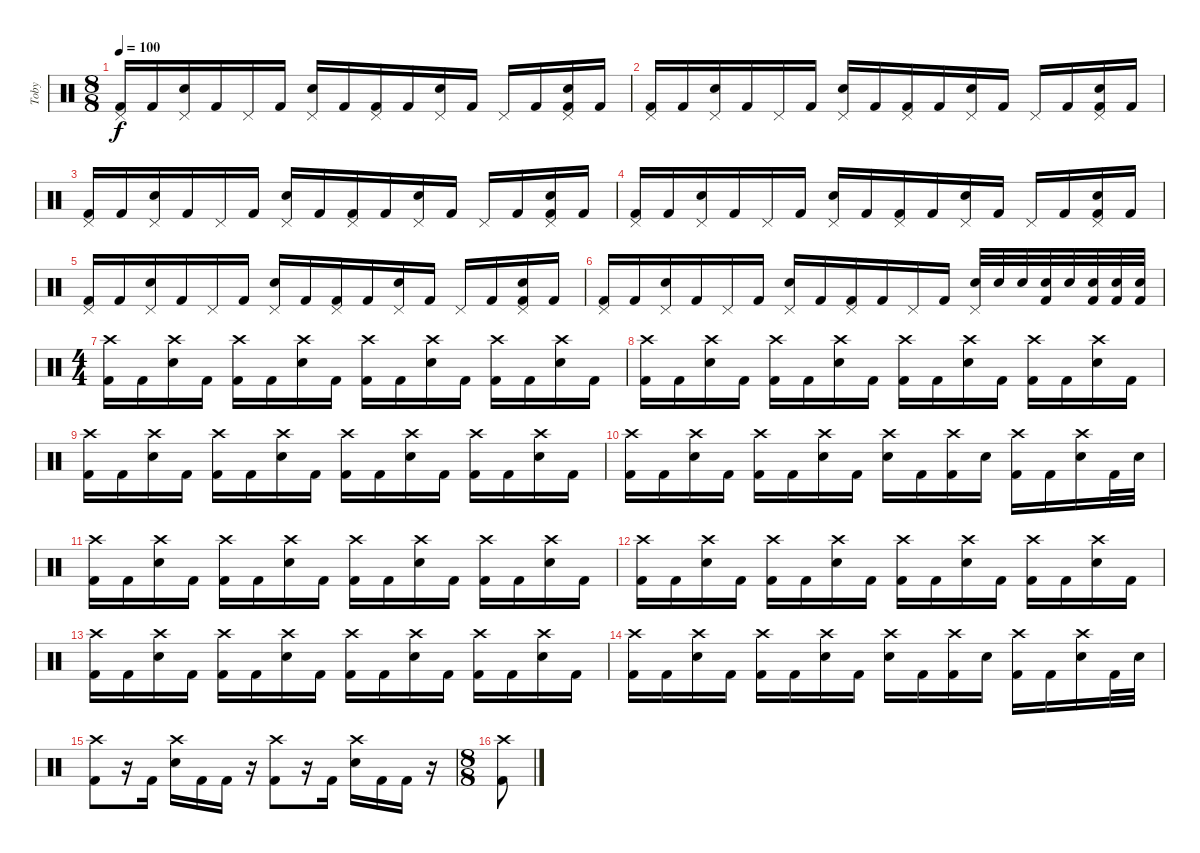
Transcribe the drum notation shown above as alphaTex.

\track ("Toby" "Toby") {instrument percussion}
\staff {score}
\articulation defaults
\ts (8 8)
\tempo 100
\clef neutral
\ks c
("Pedal Hi-Hat (hit)" "Kick (hit) 2").16{dy f} "Kick (hit) 2".16 ("Pedal Hi-Hat (hit)" "Electric Snare (hit)").16 "Kick (hit) 2".16 "Pedal Hi-Hat (hit)".16 "Kick (hit) 2".16 ("Pedal Hi-Hat (hit)" "Electric Snare (hit)").16 "Kick (hit) 2".16 ("Pedal Hi-Hat (hit)" "Kick (hit) 2").16 "Kick (hit) 2".16 ("Pedal Hi-Hat (hit)" "Electric Snare (hit)").16 "Kick (hit) 2".16 "Pedal Hi-Hat (hit)".16 "Kick (hit) 2".16 ("Pedal Hi-Hat (hit)" "Electric Snare (hit)" "Kick (hit) 2").16 "Kick (hit) 2".16 |
("Pedal Hi-Hat (hit)" "Kick (hit) 2").16 "Kick (hit) 2".16 ("Pedal Hi-Hat (hit)" "Electric Snare (hit)").16 "Kick (hit) 2".16 "Pedal Hi-Hat (hit)".16 "Kick (hit) 2".16 ("Pedal Hi-Hat (hit)" "Electric Snare (hit)").16 "Kick (hit) 2".16 ("Pedal Hi-Hat (hit)" "Kick (hit) 2").16 "Kick (hit) 2".16 ("Pedal Hi-Hat (hit)" "Electric Snare (hit)").16 "Kick (hit) 2".16 "Pedal Hi-Hat (hit)".16 "Kick (hit) 2".16 ("Pedal Hi-Hat (hit)" "Electric Snare (hit)" "Kick (hit) 2").16 "Kick (hit) 2".16 |
("Pedal Hi-Hat (hit)" "Kick (hit) 2").16 "Kick (hit) 2".16 ("Pedal Hi-Hat (hit)" "Electric Snare (hit)").16 "Kick (hit) 2".16 "Pedal Hi-Hat (hit)".16 "Kick (hit) 2".16 ("Pedal Hi-Hat (hit)" "Electric Snare (hit)").16 "Kick (hit) 2".16 ("Pedal Hi-Hat (hit)" "Kick (hit) 2").16 "Kick (hit) 2".16 ("Pedal Hi-Hat (hit)" "Electric Snare (hit)").16 "Kick (hit) 2".16 "Pedal Hi-Hat (hit)".16 "Kick (hit) 2".16 ("Pedal Hi-Hat (hit)" "Electric Snare (hit)" "Kick (hit) 2").16 "Kick (hit) 2".16 |
("Pedal Hi-Hat (hit)" "Kick (hit) 2").16 "Kick (hit) 2".16 ("Pedal Hi-Hat (hit)" "Electric Snare (hit)").16 "Kick (hit) 2".16 "Pedal Hi-Hat (hit)".16 "Kick (hit) 2".16 ("Pedal Hi-Hat (hit)" "Electric Snare (hit)").16 "Kick (hit) 2".16 ("Pedal Hi-Hat (hit)" "Kick (hit) 2").16 "Kick (hit) 2".16 ("Pedal Hi-Hat (hit)" "Electric Snare (hit)").16 "Kick (hit) 2".16 "Pedal Hi-Hat (hit)".16 "Kick (hit) 2".16 ("Pedal Hi-Hat (hit)" "Electric Snare (hit)" "Kick (hit) 2").16 "Kick (hit) 2".16 |
("Pedal Hi-Hat (hit)" "Kick (hit) 2").16 "Kick (hit) 2".16 ("Pedal Hi-Hat (hit)" "Electric Snare (hit)").16 "Kick (hit) 2".16 "Pedal Hi-Hat (hit)".16 "Kick (hit) 2".16 ("Pedal Hi-Hat (hit)" "Electric Snare (hit)").16 "Kick (hit) 2".16 ("Pedal Hi-Hat (hit)" "Kick (hit) 2").16 "Kick (hit) 2".16 ("Pedal Hi-Hat (hit)" "Electric Snare (hit)").16 "Kick (hit) 2".16 "Pedal Hi-Hat (hit)".16 "Kick (hit) 2".16 ("Pedal Hi-Hat (hit)" "Electric Snare (hit)" "Kick (hit) 2").16 "Kick (hit) 2".16 |
("Pedal Hi-Hat (hit)" "Kick (hit) 2").16 "Kick (hit) 2".16 ("Pedal Hi-Hat (hit)" "Electric Snare (hit)").16 "Kick (hit) 2".16 "Pedal Hi-Hat (hit)".16 "Kick (hit) 2".16 ("Pedal Hi-Hat (hit)" "Electric Snare (hit)").16 "Kick (hit) 2".16 ("Pedal Hi-Hat (hit)" "Kick (hit) 2").16 "Kick (hit) 2".16 "Pedal Hi-Hat (hit)".16 "Kick (hit) 2".16 ("Pedal Hi-Hat (hit)" "Electric Snare (hit)").32 "Electric Snare (hit)".32 "Electric Snare (hit)".32 ("Electric Snare (hit)" "Kick (hit) 2").32 "Electric Snare (hit)".32 ("Electric Snare (hit)" "Kick (hit) 2").32 ("Electric Snare (hit)" "Kick (hit) 2").32 ("Electric Snare (hit)" "Kick (hit) 2").32 |
\ts (4 4)
("Crash high (hit)" "Kick (hit) 2").16 "Kick (hit) 2".16 ("Crash high (hit)" "Electric Snare (hit)").16 "Kick (hit) 2".16 ("Crash high (hit)" "Kick (hit) 2").16 "Kick (hit) 2".16 ("Crash high (hit)" "Electric Snare (hit)").16 "Kick (hit) 2".16 ("Crash high (hit)" "Kick (hit) 2").16 "Kick (hit) 2".16 ("Crash high (hit)" "Electric Snare (hit)").16 "Kick (hit) 2".16 ("Crash high (hit)" "Kick (hit) 2").16 "Kick (hit) 2".16 ("Crash high (hit)" "Electric Snare (hit)").16 "Kick (hit) 2".16 |
("Crash high (hit)" "Kick (hit) 2").16 "Kick (hit) 2".16 ("Crash high (hit)" "Electric Snare (hit)").16 "Kick (hit) 2".16 ("Crash high (hit)" "Kick (hit) 2").16 "Kick (hit) 2".16 ("Crash high (hit)" "Electric Snare (hit)").16 "Kick (hit) 2".16 ("Crash high (hit)" "Kick (hit) 2").16 "Kick (hit) 2".16 ("Crash high (hit)" "Electric Snare (hit)").16 "Kick (hit) 2".16 ("Crash high (hit)" "Kick (hit) 2").16 "Kick (hit) 2".16 ("Crash high (hit)" "Electric Snare (hit)").16 "Kick (hit) 2".16 |
("Crash high (hit)" "Kick (hit) 2").16 "Kick (hit) 2".16 ("Crash high (hit)" "Electric Snare (hit)").16 "Kick (hit) 2".16 ("Crash high (hit)" "Kick (hit) 2").16 "Kick (hit) 2".16 ("Crash high (hit)" "Electric Snare (hit)").16 "Kick (hit) 2".16 ("Crash high (hit)" "Kick (hit) 2").16 "Kick (hit) 2".16 ("Crash high (hit)" "Electric Snare (hit)").16 "Kick (hit) 2".16 ("Crash high (hit)" "Kick (hit) 2").16 "Kick (hit) 2".16 ("Crash high (hit)" "Electric Snare (hit)").16 "Kick (hit) 2".16 |
("Crash high (hit)" "Kick (hit) 2").16 "Kick (hit) 2".16 ("Crash high (hit)" "Electric Snare (hit)").16 "Kick (hit) 2".16 ("Crash high (hit)" "Kick (hit) 2").16 "Kick (hit) 2".16 ("Crash high (hit)" "Electric Snare (hit)").16 "Kick (hit) 2".16 ("Crash high (hit)" "Electric Snare (hit)").16 "Kick (hit) 2".16 ("Crash high (hit)" "Kick (hit) 2").16 "Electric Snare (hit)".16 ("Crash high (hit)" "Kick (hit) 2").16 "Kick (hit) 2".16 ("Crash high (hit)" "Electric Snare (hit)").16 "Kick (hit) 2".32 "Electric Snare (hit)".32 |
("Crash high (hit)" "Kick (hit) 2").16 "Kick (hit) 2".16 ("Crash high (hit)" "Electric Snare (hit)").16 "Kick (hit) 2".16 ("Crash high (hit)" "Kick (hit) 2").16 "Kick (hit) 2".16 ("Crash high (hit)" "Electric Snare (hit)").16 "Kick (hit) 2".16 ("Crash high (hit)" "Kick (hit) 2").16 "Kick (hit) 2".16 ("Crash high (hit)" "Electric Snare (hit)").16 "Kick (hit) 2".16 ("Crash high (hit)" "Kick (hit) 2").16 "Kick (hit) 2".16 ("Crash high (hit)" "Electric Snare (hit)").16 "Kick (hit) 2".16 |
("Crash high (hit)" "Kick (hit) 2").16 "Kick (hit) 2".16 ("Crash high (hit)" "Electric Snare (hit)").16 "Kick (hit) 2".16 ("Crash high (hit)" "Kick (hit) 2").16 "Kick (hit) 2".16 ("Crash high (hit)" "Electric Snare (hit)").16 "Kick (hit) 2".16 ("Crash high (hit)" "Kick (hit) 2").16 "Kick (hit) 2".16 ("Crash high (hit)" "Electric Snare (hit)").16 "Kick (hit) 2".16 ("Crash high (hit)" "Kick (hit) 2").16 "Kick (hit) 2".16 ("Crash high (hit)" "Electric Snare (hit)").16 "Kick (hit) 2".16 |
("Crash high (hit)" "Kick (hit) 2").16 "Kick (hit) 2".16 ("Crash high (hit)" "Electric Snare (hit)").16 "Kick (hit) 2".16 ("Crash high (hit)" "Kick (hit) 2").16 "Kick (hit) 2".16 ("Crash high (hit)" "Electric Snare (hit)").16 "Kick (hit) 2".16 ("Crash high (hit)" "Kick (hit) 2").16 "Kick (hit) 2".16 ("Crash high (hit)" "Electric Snare (hit)").16 "Kick (hit) 2".16 ("Crash high (hit)" "Kick (hit) 2").16 "Kick (hit) 2".16 ("Crash high (hit)" "Electric Snare (hit)").16 "Kick (hit) 2".16 |
("Crash high (hit)" "Kick (hit) 2").16 "Kick (hit) 2".16 ("Crash high (hit)" "Electric Snare (hit)").16 "Kick (hit) 2".16 ("Crash high (hit)" "Kick (hit) 2").16 "Kick (hit) 2".16 ("Crash high (hit)" "Electric Snare (hit)").16 "Kick (hit) 2".16 ("Crash high (hit)" "Electric Snare (hit)").16 "Kick (hit) 2".16 ("Crash high (hit)" "Kick (hit) 2").16 "Electric Snare (hit)".16 ("Crash high (hit)" "Kick (hit) 2").16 "Kick (hit) 2".16 ("Crash high (hit)" "Electric Snare (hit)").16 "Kick (hit) 2".32 "Electric Snare (hit)".32 |
("Crash high (hit)" "Kick (hit) 2").8 r.16 "Kick (hit) 2".16 ("Crash high (hit)" "Electric Snare (hit)").16 "Kick (hit) 2".16 "Kick (hit) 2".16 r.16 ("Crash high (hit)" "Kick (hit) 2").8 r.16 "Kick (hit) 2".16 ("Crash high (hit)" "Electric Snare (hit)").16 "Kick (hit) 2".16 "Kick (hit) 2".16 r.16 |
\ts (8 8)
("Crash high (hit)" "Kick (hit) 2").8
